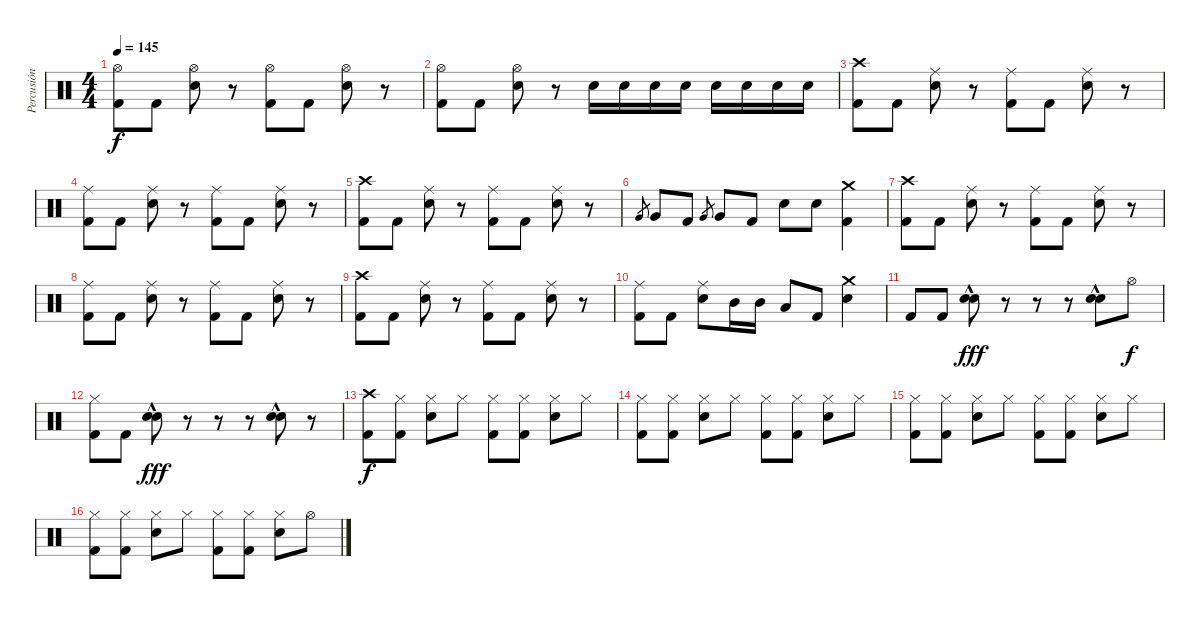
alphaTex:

\track ("Percusión" "Percusión") {instrument percussion}
\staff {score}
\articulation defaults
\ts (4 4)
\tempo 145
\clef neutral
\ks c
("Hi-Hat (open)" "Kick (hit) 2").8{dy f} "Kick (hit) 2".8 ("Hi-Hat (open)" "Electric Snare (hit)").8 r.8 ("Hi-Hat (open)" "Kick (hit) 2").8 "Kick (hit) 2".8 ("Hi-Hat (open)" "Electric Snare (hit)").8 r.8 |
("Hi-Hat (open)" "Kick (hit) 2").8 "Kick (hit) 2".8 ("Hi-Hat (open)" "Electric Snare (hit)").8 r.8 "Electric Snare (hit)".16 "Electric Snare (hit)".16 "Electric Snare (hit)".16 "Electric Snare (hit)".16 "Electric Snare (hit)".16 "Electric Snare (hit)".16 "Electric Snare (hit)".16 "Electric Snare (hit)".16 |
("Crash high (hit)" "Kick (hit) 2").8 "Kick (hit) 2".8 ("Ride (middle)" "Electric Snare (hit)").8 r.8 ("Ride (middle)" "Kick (hit) 2").8 "Kick (hit) 2".8 ("Ride (middle)" "Electric Snare (hit)").8 r.8 |
("Ride (middle)" "Kick (hit) 2").8 "Kick (hit) 2".8 ("Ride (middle)" "Electric Snare (hit)").8 r.8 ("Ride (middle)" "Kick (hit) 2").8 "Kick (hit) 2".8 ("Ride (middle)" "Electric Snare (hit)").8 r.8 |
("Crash high (hit)" "Kick (hit) 2").8 "Kick (hit) 2".8 ("Ride (middle)" "Electric Snare (hit)").8 r.8 ("Ride (middle)" "Kick (hit) 2").8 "Kick (hit) 2".8 ("Ride (middle)" "Electric Snare (hit)").8 r.8 |
"Very Low Tom (hit)".8{gr} "Very Low Tom (hit)".8 "Kick (hit) 2".8 "Very Low Tom (hit)".8{gr} "Very Low Tom (hit)".8 "Kick (hit) 2".8 "Electric Snare (hit)".8 "Electric Snare (hit)".8 ("Crash medium (hit)" "Kick (hit) 2").4 |
("Crash high (hit)" "Kick (hit) 2").8 "Kick (hit) 2".8 ("Ride (middle)" "Electric Snare (hit)").8 r.8 ("Ride (middle)" "Kick (hit) 2").8 "Kick (hit) 2".8 ("Ride (middle)" "Electric Snare (hit)").8 r.8 |
("Ride (middle)" "Kick (hit) 2").8 "Kick (hit) 2".8 ("Ride (middle)" "Electric Snare (hit)").8 r.8 ("Ride (middle)" "Kick (hit) 2").8 "Kick (hit) 2".8 ("Ride (middle)" "Electric Snare (hit)").8 r.8 |
("Crash high (hit)" "Kick (hit) 2").8 "Kick (hit) 2".8 ("Ride (middle)" "Electric Snare (hit)").8 r.8 ("Ride (middle)" "Kick (hit) 2").8 "Kick (hit) 2".8 ("Ride (middle)" "Electric Snare (hit)").8 r.8 |
("Ride (middle)" "Kick (hit) 2").8 "Kick (hit) 2".8 ("Ride (middle)" "Electric Snare (hit)").8 "Mid Tom (hit)".16 "Mid Tom (hit)".16 "Low Tom (hit)".8 "Kick (hit) 2".8 ("Crash medium (hit)" "Electric Snare (hit)").4 |
"Kick (hit) 2".8 "Kick (hit) 2".8 ("Electric Snare (hit)"{hac} "Electric Snare (hit)"{hac}).8{dy fff} r.8 r.8 r.8 ("Electric Snare (hit)"{hac} "Electric Snare (hit)"{hac}).8 "Hi-Hat (open)".8{dy f} |
("Hi-Hat (closed)" "Kick (hit) 2").8 "Kick (hit) 2".8 ("Electric Snare (hit)"{hac} "Electric Snare (hit)"{hac}).8{dy fff} r.8 r.8 r.8 ("Electric Snare (hit)"{hac} "Electric Snare (hit)"{hac}).8 r.8 |
("Crash high (hit)" "Kick (hit) 2").8{dy f} ("Hi-Hat (closed)" "Kick (hit) 2").8 ("Hi-Hat (closed)" "Electric Snare (hit)").8 "Hi-Hat (closed)".8 ("Hi-Hat (closed)" "Kick (hit) 2").8 ("Hi-Hat (closed)" "Kick (hit) 2").8 ("Hi-Hat (closed)" "Electric Snare (hit)").8 "Hi-Hat (closed)".8 |
("Hi-Hat (closed)" "Kick (hit) 2").8 ("Hi-Hat (closed)" "Kick (hit) 2").8 ("Hi-Hat (closed)" "Electric Snare (hit)").8 "Hi-Hat (closed)".8 ("Hi-Hat (closed)" "Kick (hit) 2").8 ("Hi-Hat (closed)" "Kick (hit) 2").8 ("Hi-Hat (closed)" "Electric Snare (hit)").8 "Hi-Hat (closed)".8 |
("Hi-Hat (closed)" "Kick (hit) 2").8 ("Hi-Hat (closed)" "Kick (hit) 2").8 ("Hi-Hat (closed)" "Electric Snare (hit)").8 "Hi-Hat (closed)".8 ("Hi-Hat (closed)" "Kick (hit) 2").8 ("Hi-Hat (closed)" "Kick (hit) 2").8 ("Hi-Hat (closed)" "Electric Snare (hit)").8 "Hi-Hat (closed)".8 |
("Hi-Hat (closed)" "Kick (hit) 2").8 ("Hi-Hat (closed)" "Kick (hit) 2").8 ("Hi-Hat (closed)" "Electric Snare (hit)").8 "Hi-Hat (closed)".8 ("Hi-Hat (closed)" "Kick (hit) 2").8 ("Hi-Hat (closed)" "Kick (hit) 2").8 ("Hi-Hat (closed)" "Electric Snare (hit)").8 "Hi-Hat (open)".8
